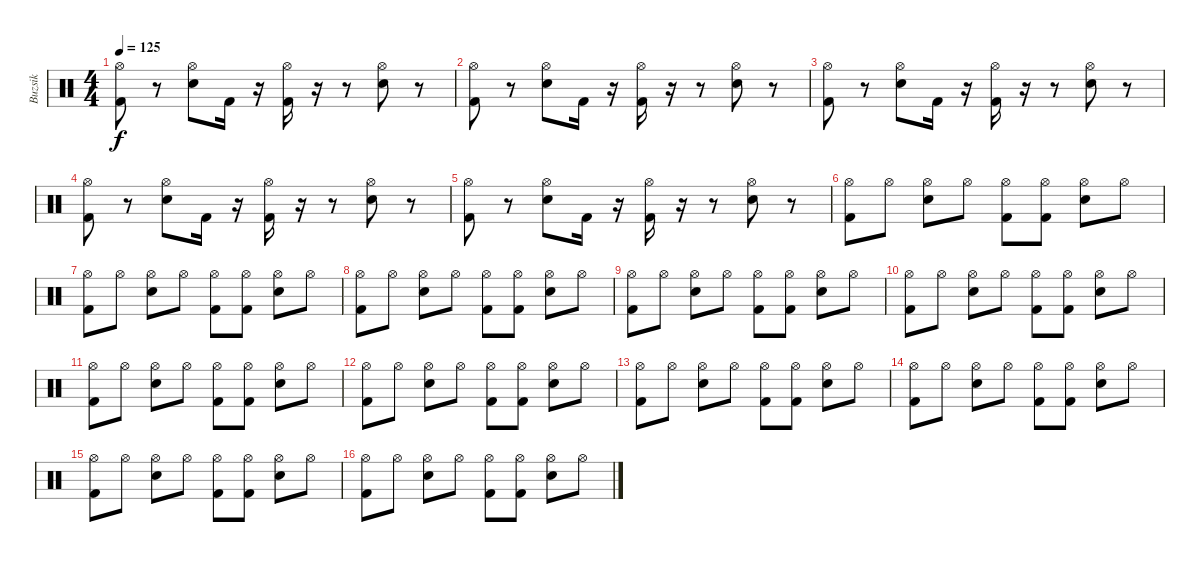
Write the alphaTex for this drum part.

\track ("Buzsik" "Buzsik") {instrument percussion}
\staff {score}
\articulation defaults
\ts (4 4)
\tempo 125
\clef neutral
\ks c
("Hi-Hat (open)" "Kick (hit) 2").8{dy f} r.8 ("Hi-Hat (open)" "Electric Snare (hit)").8 "Kick (hit) 2".16 r.16 ("Hi-Hat (open)" "Kick (hit) 2").16 r.16 r.8 ("Hi-Hat (open)" "Electric Snare (hit)").8 r.8 |
("Hi-Hat (open)" "Kick (hit) 2").8 r.8 ("Hi-Hat (open)" "Electric Snare (hit)").8 "Kick (hit) 2".16 r.16 ("Hi-Hat (open)" "Kick (hit) 2").16 r.16 r.8 ("Hi-Hat (open)" "Electric Snare (hit)").8 r.8 |
("Hi-Hat (open)" "Kick (hit) 2").8 r.8 ("Hi-Hat (open)" "Electric Snare (hit)").8 "Kick (hit) 2".16 r.16 ("Hi-Hat (open)" "Kick (hit) 2").16 r.16 r.8 ("Hi-Hat (open)" "Electric Snare (hit)").8 r.8 |
("Hi-Hat (open)" "Kick (hit) 2").8 r.8 ("Hi-Hat (open)" "Electric Snare (hit)").8 "Kick (hit) 2".16 r.16 ("Hi-Hat (open)" "Kick (hit) 2").16 r.16 r.8 ("Hi-Hat (open)" "Electric Snare (hit)").8 r.8 |
("Hi-Hat (open)" "Kick (hit) 2").8 r.8 ("Hi-Hat (open)" "Electric Snare (hit)").8 "Kick (hit) 2".16 r.16 ("Hi-Hat (open)" "Kick (hit) 2").16 r.16 r.8 ("Hi-Hat (open)" "Electric Snare (hit)").8 r.8 |
("Hi-Hat (open)" "Kick (hit) 2").8 "Hi-Hat (open)".8 ("Hi-Hat (open)" "Electric Snare (hit)").8 "Hi-Hat (open)".8 ("Hi-Hat (open)" "Kick (hit) 2").8 ("Hi-Hat (open)" "Kick (hit) 2").8 ("Hi-Hat (open)" "Electric Snare (hit)").8 "Hi-Hat (open)".8 |
("Hi-Hat (open)" "Kick (hit) 2").8 "Hi-Hat (open)".8 ("Hi-Hat (open)" "Electric Snare (hit)").8 "Hi-Hat (open)".8 ("Hi-Hat (open)" "Kick (hit) 2").8 ("Hi-Hat (open)" "Kick (hit) 2").8 ("Hi-Hat (open)" "Electric Snare (hit)").8 "Hi-Hat (open)".8 |
("Hi-Hat (open)" "Kick (hit) 2").8 "Hi-Hat (open)".8 ("Hi-Hat (open)" "Electric Snare (hit)").8 "Hi-Hat (open)".8 ("Hi-Hat (open)" "Kick (hit) 2").8 ("Hi-Hat (open)" "Kick (hit) 2").8 ("Hi-Hat (open)" "Electric Snare (hit)").8 "Hi-Hat (open)".8 |
("Hi-Hat (open)" "Kick (hit) 2").8 "Hi-Hat (open)".8 ("Hi-Hat (open)" "Electric Snare (hit)").8 "Hi-Hat (open)".8 ("Hi-Hat (open)" "Kick (hit) 2").8 ("Hi-Hat (open)" "Kick (hit) 2").8 ("Hi-Hat (open)" "Electric Snare (hit)").8 "Hi-Hat (open)".8 |
("Hi-Hat (open)" "Kick (hit) 2").8 "Hi-Hat (open)".8 ("Hi-Hat (open)" "Electric Snare (hit)").8 "Hi-Hat (open)".8 ("Hi-Hat (open)" "Kick (hit) 2").8 ("Hi-Hat (open)" "Kick (hit) 2").8 ("Hi-Hat (open)" "Electric Snare (hit)").8 "Hi-Hat (open)".8 |
("Hi-Hat (open)" "Kick (hit) 2").8 "Hi-Hat (open)".8 ("Hi-Hat (open)" "Electric Snare (hit)").8 "Hi-Hat (open)".8 ("Hi-Hat (open)" "Kick (hit) 2").8 ("Hi-Hat (open)" "Kick (hit) 2").8 ("Hi-Hat (open)" "Electric Snare (hit)").8 "Hi-Hat (open)".8 |
("Hi-Hat (open)" "Kick (hit) 2").8 "Hi-Hat (open)".8 ("Hi-Hat (open)" "Electric Snare (hit)").8 "Hi-Hat (open)".8 ("Hi-Hat (open)" "Kick (hit) 2").8 ("Hi-Hat (open)" "Kick (hit) 2").8 ("Hi-Hat (open)" "Electric Snare (hit)").8 "Hi-Hat (open)".8 |
("Hi-Hat (open)" "Kick (hit) 2").8 "Hi-Hat (open)".8 ("Hi-Hat (open)" "Electric Snare (hit)").8 "Hi-Hat (open)".8 ("Hi-Hat (open)" "Kick (hit) 2").8 ("Hi-Hat (open)" "Kick (hit) 2").8 ("Hi-Hat (open)" "Electric Snare (hit)").8 "Hi-Hat (open)".8 |
("Hi-Hat (open)" "Kick (hit) 2").8 "Hi-Hat (open)".8 ("Hi-Hat (open)" "Electric Snare (hit)").8 "Hi-Hat (open)".8 ("Hi-Hat (open)" "Kick (hit) 2").8 ("Hi-Hat (open)" "Kick (hit) 2").8 ("Hi-Hat (open)" "Electric Snare (hit)").8 "Hi-Hat (open)".8 |
("Hi-Hat (open)" "Kick (hit) 2").8 "Hi-Hat (open)".8 ("Hi-Hat (open)" "Electric Snare (hit)").8 "Hi-Hat (open)".8 ("Hi-Hat (open)" "Kick (hit) 2").8 ("Hi-Hat (open)" "Kick (hit) 2").8 ("Hi-Hat (open)" "Electric Snare (hit)").8 "Hi-Hat (open)".8 |
("Hi-Hat (open)" "Kick (hit) 2").8 "Hi-Hat (open)".8 ("Hi-Hat (open)" "Electric Snare (hit)").8 "Hi-Hat (open)".8 ("Hi-Hat (open)" "Kick (hit) 2").8 ("Hi-Hat (open)" "Kick (hit) 2").8 ("Hi-Hat (open)" "Electric Snare (hit)").8 "Hi-Hat (open)".8
